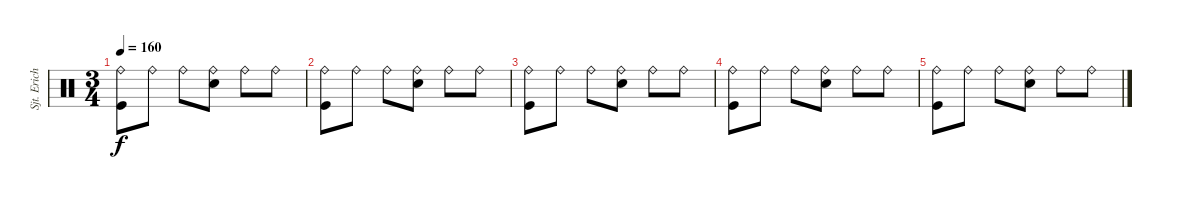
\track ("Sjt. Erichsen" "Sjt. Erich") {instrument percussion}
\staff {score}
\articulation defaults
\ts (3 4)
\tempo 160
\clef neutral
\ks c
("Ride (bell)" "Kick (hit)").8{dy f} "Ride (bell)".8 "Ride (bell)".8 ("Ride (bell)" "Electric Snare (hit)").8 "Ride (bell)".8 "Ride (bell)".8 |
("Ride (bell)" "Kick (hit)").8 "Ride (bell)".8 "Ride (bell)".8 ("Ride (bell)" "Electric Snare (hit)").8 "Ride (bell)".8 "Ride (bell)".8 |
("Ride (bell)" "Kick (hit)").8 "Ride (bell)".8 "Ride (bell)".8 ("Ride (bell)" "Electric Snare (hit)").8 "Ride (bell)".8 "Ride (bell)".8 |
("Ride (bell)" "Kick (hit)").8 "Ride (bell)".8 "Ride (bell)".8 ("Ride (bell)" "Electric Snare (hit)").8 "Ride (bell)".8 "Ride (bell)".8 |
("Ride (bell)" "Kick (hit)").8 "Ride (bell)".8 "Ride (bell)".8 ("Ride (bell)" "Electric Snare (hit)").8 "Ride (bell)".8 "Ride (bell)".8
